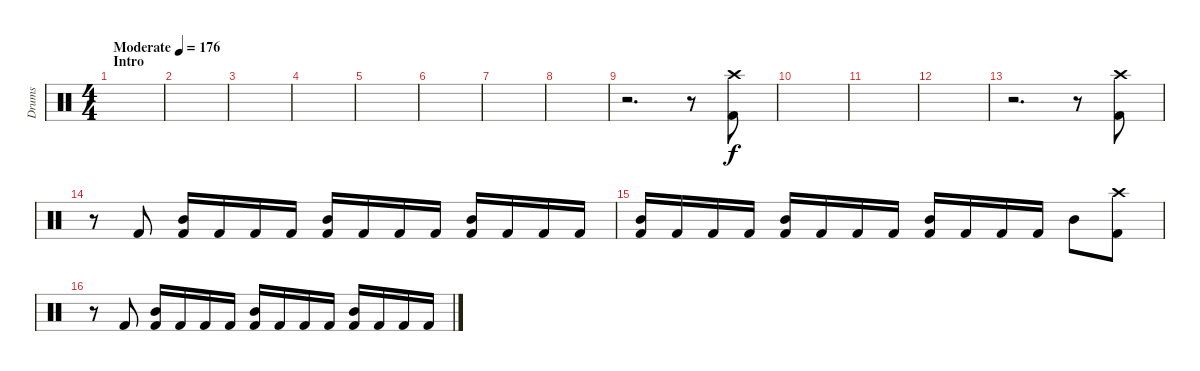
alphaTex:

\track ("Drums" "Drums") {instrument percussion}
\staff {score}
\articulation defaults
\ts (4 4)
\section ("" "Intro")
\tempo (176 "Moderate")
\clef neutral
\ks c
|
|
|
|
|
|
|
|
r.2{d} r.8 ("Crash high (hit)" "Kick (hit) 2").8 |
|
|
|
r.2{d} r.8 ("Crash high (hit)" "Kick (hit) 2").8 |
r.8 "Kick (hit) 2".8 ("Mid Tom (hit)" "Kick (hit) 2").16 "Kick (hit) 2".16 "Kick (hit) 2".16 "Kick (hit) 2".16 ("Mid Tom (hit)" "Kick (hit) 2").16 "Kick (hit) 2".16 "Kick (hit) 2".16 "Kick (hit) 2".16 ("Mid Tom (hit)" "Kick (hit) 2").16 "Kick (hit) 2".16 "Kick (hit) 2".16 "Kick (hit) 2".16 |
("Mid Tom (hit)" "Kick (hit) 2").16 "Kick (hit) 2".16 "Kick (hit) 2".16 "Kick (hit) 2".16 ("Mid Tom (hit)" "Kick (hit) 2").16 "Kick (hit) 2".16 "Kick (hit) 2".16 "Kick (hit) 2".16 ("Mid Tom (hit)" "Kick (hit) 2").16 "Kick (hit) 2".16 "Kick (hit) 2".16 "Kick (hit) 2".16 "Mid Tom (hit)".8 ("Crash high (hit)" "Kick (hit) 2").8 |
r.8 "Kick (hit) 2".8 ("Mid Tom (hit)" "Kick (hit) 2").16 "Kick (hit) 2".16 "Kick (hit) 2".16 "Kick (hit) 2".16 ("Mid Tom (hit)" "Kick (hit) 2").16 "Kick (hit) 2".16 "Kick (hit) 2".16 "Kick (hit) 2".16 ("Mid Tom (hit)" "Kick (hit) 2").16 "Kick (hit) 2".16 "Kick (hit) 2".16 "Kick (hit) 2".16
